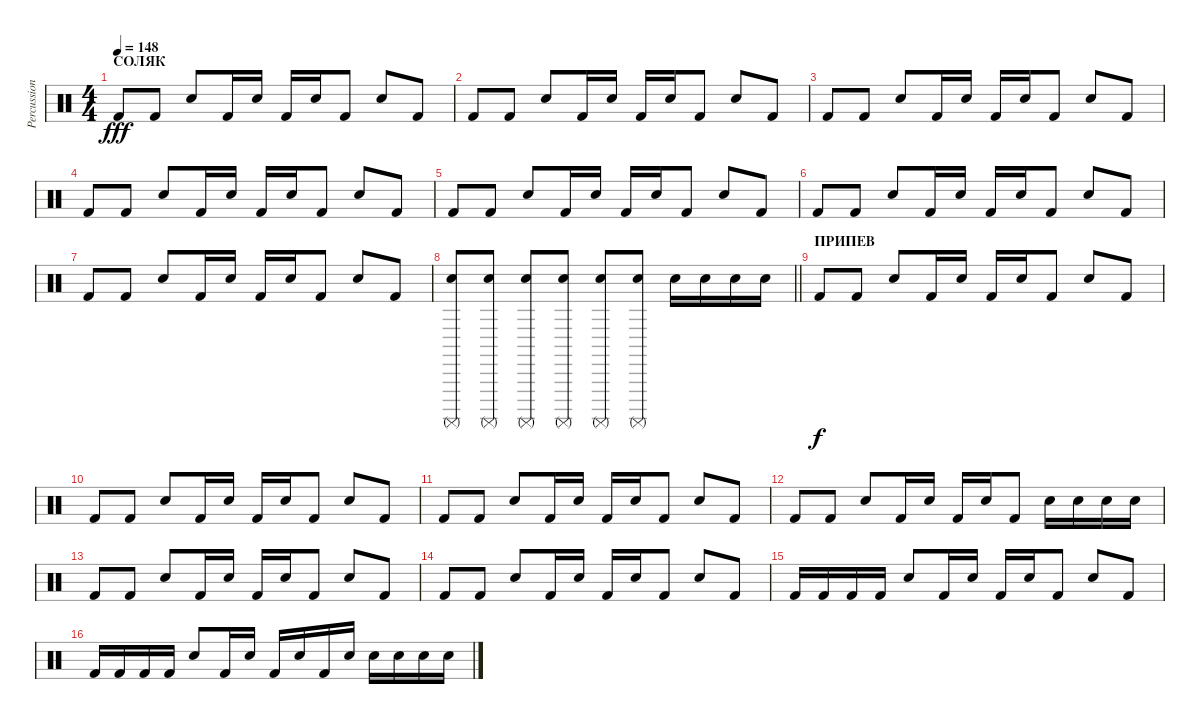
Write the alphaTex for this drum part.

\track ("Percussion" "Percussion") {instrument percussion}
\staff {score}
\articulation defaults
\ts (4 4)
\section ("" "СОЛЯК")
\tempo 148
\clef neutral
\ks c "Kick (hit) 2".8{dy fff} "Kick (hit) 2".8 "Electric Snare (hit)".8 "Kick (hit) 2".16 "Electric Snare (hit)".16 "Kick (hit) 2".16 "Electric Snare (hit)".16 "Kick (hit) 2".8 "Electric Snare (hit)".8 "Kick (hit) 2".8
|
"Kick (hit) 2".8 "Kick (hit) 2".8 "Electric Snare (hit)".8 "Kick (hit) 2".16 "Electric Snare (hit)".16 "Kick (hit) 2".16 "Electric Snare (hit)".16 "Kick (hit) 2".8 "Electric Snare (hit)".8 "Kick (hit) 2".8 |
"Kick (hit) 2".8 "Kick (hit) 2".8 "Electric Snare (hit)".8 "Kick (hit) 2".16 "Electric Snare (hit)".16 "Kick (hit) 2".16 "Electric Snare (hit)".16 "Kick (hit) 2".8 "Electric Snare (hit)".8 "Kick (hit) 2".8 |
"Kick (hit) 2".8 "Kick (hit) 2".8 "Electric Snare (hit)".8 "Kick (hit) 2".16 "Electric Snare (hit)".16 "Kick (hit) 2".16 "Electric Snare (hit)".16 "Kick (hit) 2".8 "Electric Snare (hit)".8 "Kick (hit) 2".8 |
"Kick (hit) 2".8 "Kick (hit) 2".8 "Electric Snare (hit)".8 "Kick (hit) 2".16 "Electric Snare (hit)".16 "Kick (hit) 2".16 "Electric Snare (hit)".16 "Kick (hit) 2".8 "Electric Snare (hit)".8 "Kick (hit) 2".8 |
"Kick (hit) 2".8 "Kick (hit) 2".8 "Electric Snare (hit)".8 "Kick (hit) 2".16 "Electric Snare (hit)".16 "Kick (hit) 2".16 "Electric Snare (hit)".16 "Kick (hit) 2".8 "Electric Snare (hit)".8 "Kick (hit) 2".8 |
"Kick (hit) 2".8 "Kick (hit) 2".8 "Electric Snare (hit)".8 "Kick (hit) 2".16 "Electric Snare (hit)".16 "Kick (hit) 2".16 "Electric Snare (hit)".16 "Kick (hit) 2".8 "Electric Snare (hit)".8 "Kick (hit) 2".8 |
\barLineRight lightlight
("Surdo (mute)" "Electric Snare (hit)").8 ("Surdo (mute)" "Electric Snare (hit)").8 ("Surdo (mute)" "Electric Snare (hit)").8 ("Surdo (mute)" "Electric Snare (hit)").8 ("Surdo (mute)" "Electric Snare (hit)").8 ("Surdo (mute)" "Electric Snare (hit)").8 "Electric Snare (hit)".16 "Electric Snare (hit)".16 "Electric Snare (hit)".16 "Electric Snare (hit)".16 |
\section ("" "ПРИПЕВ")
"Kick (hit) 2".8{dy f} "Kick (hit) 2".8 "Electric Snare (hit)".8 "Kick (hit) 2".16 "Electric Snare (hit)".16 "Kick (hit) 2".16 "Electric Snare (hit)".16 "Kick (hit) 2".8 "Electric Snare (hit)".8 "Kick (hit) 2".8 |
"Kick (hit) 2".8 "Kick (hit) 2".8 "Electric Snare (hit)".8 "Kick (hit) 2".16 "Electric Snare (hit)".16 "Kick (hit) 2".16 "Electric Snare (hit)".16 "Kick (hit) 2".8 "Electric Snare (hit)".8 "Kick (hit) 2".8 |
"Kick (hit) 2".8 "Kick (hit) 2".8 "Electric Snare (hit)".8 "Kick (hit) 2".16 "Electric Snare (hit)".16 "Kick (hit) 2".16 "Electric Snare (hit)".16 "Kick (hit) 2".8 "Electric Snare (hit)".8 "Kick (hit) 2".8 |
"Kick (hit) 2".8 "Kick (hit) 2".8 "Electric Snare (hit)".8 "Kick (hit) 2".16 "Electric Snare (hit)".16 "Kick (hit) 2".16 "Electric Snare (hit)".16 "Kick (hit) 2".8 "Electric Snare (hit)".16 "Electric Snare (hit)".16 "Electric Snare (hit)".16 "Electric Snare (hit)".16 |
"Kick (hit) 2".8 "Kick (hit) 2".8 "Electric Snare (hit)".8 "Kick (hit) 2".16 "Electric Snare (hit)".16 "Kick (hit) 2".16 "Electric Snare (hit)".16 "Kick (hit) 2".8 "Electric Snare (hit)".8 "Kick (hit) 2".8 |
"Kick (hit) 2".8 "Kick (hit) 2".8 "Electric Snare (hit)".8 "Kick (hit) 2".16 "Electric Snare (hit)".16 "Kick (hit) 2".16 "Electric Snare (hit)".16 "Kick (hit) 2".8 "Electric Snare (hit)".8 "Kick (hit) 2".8 |
"Kick (hit) 2".16 "Kick (hit) 2".16 "Kick (hit) 2".16 "Kick (hit) 2".16 "Electric Snare (hit)".8 "Kick (hit) 2".16 "Electric Snare (hit)".16 "Kick (hit) 2".16 "Electric Snare (hit)".16 "Kick (hit) 2".8 "Electric Snare (hit)".8 "Kick (hit) 2".8 |
"Kick (hit) 2".16 "Kick (hit) 2".16 "Kick (hit) 2".16 "Kick (hit) 2".16 "Electric Snare (hit)".8 "Kick (hit) 2".16 "Electric Snare (hit)".16 "Kick (hit) 2".16 "Electric Snare (hit)".16 "Kick (hit) 2".16 "Electric Snare (hit)".16 "Electric Snare (hit)".16 "Electric Snare (hit)".16 "Electric Snare (hit)".16 "Electric Snare (hit)".16
